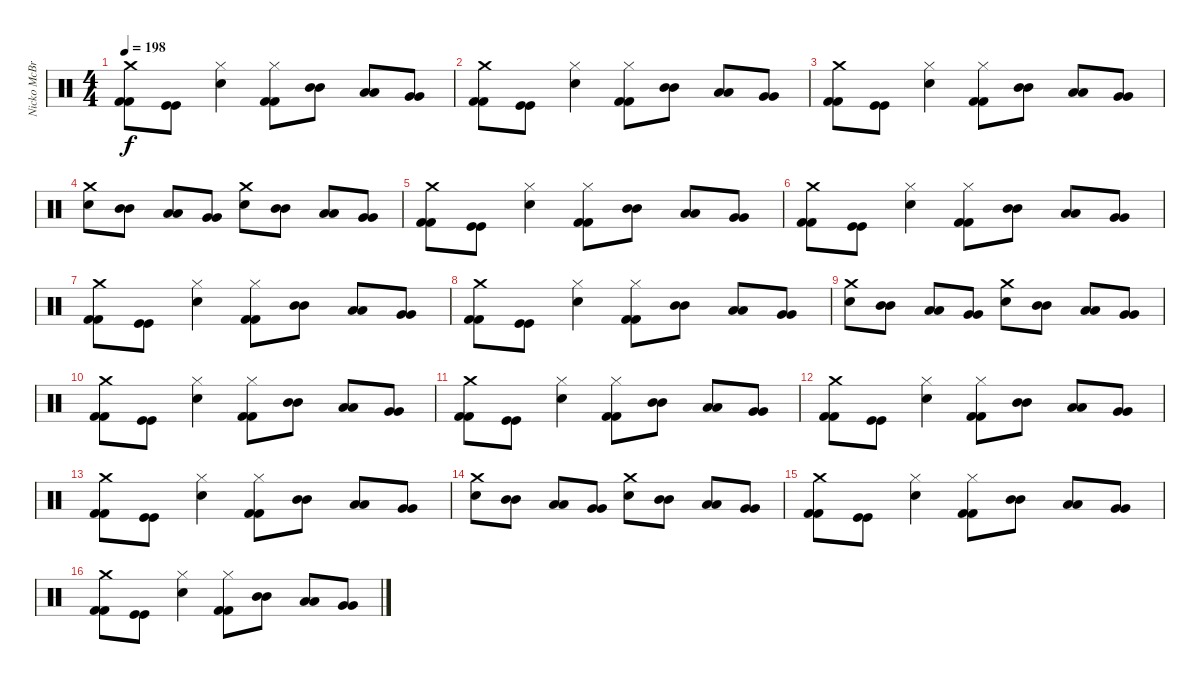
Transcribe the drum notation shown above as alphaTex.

\track ("Nicko McBrain" "Nicko McBr") {instrument percussion}
\staff {score}
\articulation defaults
\ts (4 4)
\tempo 198
\clef neutral
\ks c
("Crash medium (hit)" "Kick (hit) 2" "Kick (hit) 2").8{dy f} ("Kick (hit)" "Kick (hit)").8 ("Hi-Hat (closed)" "Electric Snare (hit)").4 ("Hi-Hat (closed)" "Kick (hit) 2" "Kick (hit) 2").8 ("Mid Tom (hit)" "Mid Tom (hit)").8 ("Low Tom (hit)" "Low Tom (hit)").8 ("Very Low Tom (hit)" "Very Low Tom (hit)").8 |
("Crash medium (hit)" "Kick (hit) 2" "Kick (hit) 2").8 ("Kick (hit)" "Kick (hit)").8 ("Hi-Hat (closed)" "Electric Snare (hit)").4 ("Hi-Hat (closed)" "Kick (hit) 2" "Kick (hit) 2").8 ("Mid Tom (hit)" "Mid Tom (hit)").8 ("Low Tom (hit)" "Low Tom (hit)").8 ("Very Low Tom (hit)" "Very Low Tom (hit)").8 |
("Crash medium (hit)" "Kick (hit) 2" "Kick (hit) 2").8 ("Kick (hit)" "Kick (hit)").8 ("Hi-Hat (closed)" "Electric Snare (hit)").4 ("Hi-Hat (closed)" "Kick (hit) 2" "Kick (hit) 2").8 ("Mid Tom (hit)" "Mid Tom (hit)").8 ("Low Tom (hit)" "Low Tom (hit)").8 ("Very Low Tom (hit)" "Very Low Tom (hit)").8 |
("Crash medium (hit)" "Electric Snare (hit)").8 ("Mid Tom (hit)" "Mid Tom (hit)").8 ("Low Tom (hit)" "Low Tom (hit)").8 ("Very Low Tom (hit)" "Very Low Tom (hit)").8 ("Crash medium (hit)" "Electric Snare (hit)").8 ("Mid Tom (hit)" "Mid Tom (hit)").8 ("Low Tom (hit)" "Low Tom (hit)").8 ("Very Low Tom (hit)" "Very Low Tom (hit)").8 |
("Crash medium (hit)" "Kick (hit) 2" "Kick (hit) 2").8 ("Kick (hit)" "Kick (hit)").8 ("Hi-Hat (closed)" "Electric Snare (hit)").4 ("Hi-Hat (closed)" "Kick (hit) 2" "Kick (hit) 2").8 ("Mid Tom (hit)" "Mid Tom (hit)").8 ("Low Tom (hit)" "Low Tom (hit)").8 ("Very Low Tom (hit)" "Very Low Tom (hit)").8 |
("Crash medium (hit)" "Kick (hit) 2" "Kick (hit) 2").8 ("Kick (hit)" "Kick (hit)").8 ("Hi-Hat (closed)" "Electric Snare (hit)").4 ("Hi-Hat (closed)" "Kick (hit) 2" "Kick (hit) 2").8 ("Mid Tom (hit)" "Mid Tom (hit)").8 ("Low Tom (hit)" "Low Tom (hit)").8 ("Very Low Tom (hit)" "Very Low Tom (hit)").8 |
("Crash medium (hit)" "Kick (hit) 2" "Kick (hit) 2").8 ("Kick (hit)" "Kick (hit)").8 ("Hi-Hat (closed)" "Electric Snare (hit)").4 ("Hi-Hat (closed)" "Kick (hit) 2" "Kick (hit) 2").8 ("Mid Tom (hit)" "Mid Tom (hit)").8 ("Low Tom (hit)" "Low Tom (hit)").8 ("Very Low Tom (hit)" "Very Low Tom (hit)").8 |
("Crash medium (hit)" "Kick (hit) 2" "Kick (hit) 2").8 ("Kick (hit)" "Kick (hit)").8 ("Hi-Hat (closed)" "Electric Snare (hit)").4 ("Hi-Hat (closed)" "Kick (hit) 2" "Kick (hit) 2").8 ("Mid Tom (hit)" "Mid Tom (hit)").8 ("Low Tom (hit)" "Low Tom (hit)").8 ("Very Low Tom (hit)" "Very Low Tom (hit)").8 |
("Crash medium (hit)" "Electric Snare (hit)").8 ("Mid Tom (hit)" "Mid Tom (hit)").8 ("Low Tom (hit)" "Low Tom (hit)").8 ("Very Low Tom (hit)" "Very Low Tom (hit)").8 ("Crash medium (hit)" "Electric Snare (hit)").8 ("Mid Tom (hit)" "Mid Tom (hit)").8 ("Low Tom (hit)" "Low Tom (hit)").8 ("Very Low Tom (hit)" "Very Low Tom (hit)").8 |
("Crash medium (hit)" "Kick (hit) 2" "Kick (hit) 2").8 ("Kick (hit)" "Kick (hit)").8 ("Hi-Hat (closed)" "Electric Snare (hit)").4 ("Hi-Hat (closed)" "Kick (hit) 2" "Kick (hit) 2").8 ("Mid Tom (hit)" "Mid Tom (hit)").8 ("Low Tom (hit)" "Low Tom (hit)").8 ("Very Low Tom (hit)" "Very Low Tom (hit)").8 |
("Crash medium (hit)" "Kick (hit) 2" "Kick (hit) 2").8 ("Kick (hit)" "Kick (hit)").8 ("Hi-Hat (closed)" "Electric Snare (hit)").4 ("Hi-Hat (closed)" "Kick (hit) 2" "Kick (hit) 2").8 ("Mid Tom (hit)" "Mid Tom (hit)").8 ("Low Tom (hit)" "Low Tom (hit)").8 ("Very Low Tom (hit)" "Very Low Tom (hit)").8 |
("Crash medium (hit)" "Kick (hit) 2" "Kick (hit) 2").8 ("Kick (hit)" "Kick (hit)").8 ("Hi-Hat (closed)" "Electric Snare (hit)").4 ("Hi-Hat (closed)" "Kick (hit) 2" "Kick (hit) 2").8 ("Mid Tom (hit)" "Mid Tom (hit)").8 ("Low Tom (hit)" "Low Tom (hit)").8 ("Very Low Tom (hit)" "Very Low Tom (hit)").8 |
("Crash medium (hit)" "Kick (hit) 2" "Kick (hit) 2").8 ("Kick (hit)" "Kick (hit)").8 ("Hi-Hat (closed)" "Electric Snare (hit)").4 ("Hi-Hat (closed)" "Kick (hit) 2" "Kick (hit) 2").8 ("Mid Tom (hit)" "Mid Tom (hit)").8 ("Low Tom (hit)" "Low Tom (hit)").8 ("Very Low Tom (hit)" "Very Low Tom (hit)").8 |
("Crash medium (hit)" "Electric Snare (hit)").8 ("Mid Tom (hit)" "Mid Tom (hit)").8 ("Low Tom (hit)" "Low Tom (hit)").8 ("Very Low Tom (hit)" "Very Low Tom (hit)").8 ("Crash medium (hit)" "Electric Snare (hit)").8 ("Mid Tom (hit)" "Mid Tom (hit)").8 ("Low Tom (hit)" "Low Tom (hit)").8 ("Very Low Tom (hit)" "Very Low Tom (hit)").8 |
("Crash medium (hit)" "Kick (hit) 2" "Kick (hit) 2").8 ("Kick (hit)" "Kick (hit)").8 ("Hi-Hat (closed)" "Electric Snare (hit)").4 ("Hi-Hat (closed)" "Kick (hit) 2" "Kick (hit) 2").8 ("Mid Tom (hit)" "Mid Tom (hit)").8 ("Low Tom (hit)" "Low Tom (hit)").8 ("Very Low Tom (hit)" "Very Low Tom (hit)").8 |
("Crash medium (hit)" "Kick (hit) 2" "Kick (hit) 2").8 ("Kick (hit)" "Kick (hit)").8 ("Hi-Hat (closed)" "Electric Snare (hit)").4 ("Hi-Hat (closed)" "Kick (hit) 2" "Kick (hit) 2").8 ("Mid Tom (hit)" "Mid Tom (hit)").8 ("Low Tom (hit)" "Low Tom (hit)").8 ("Very Low Tom (hit)" "Very Low Tom (hit)").8
